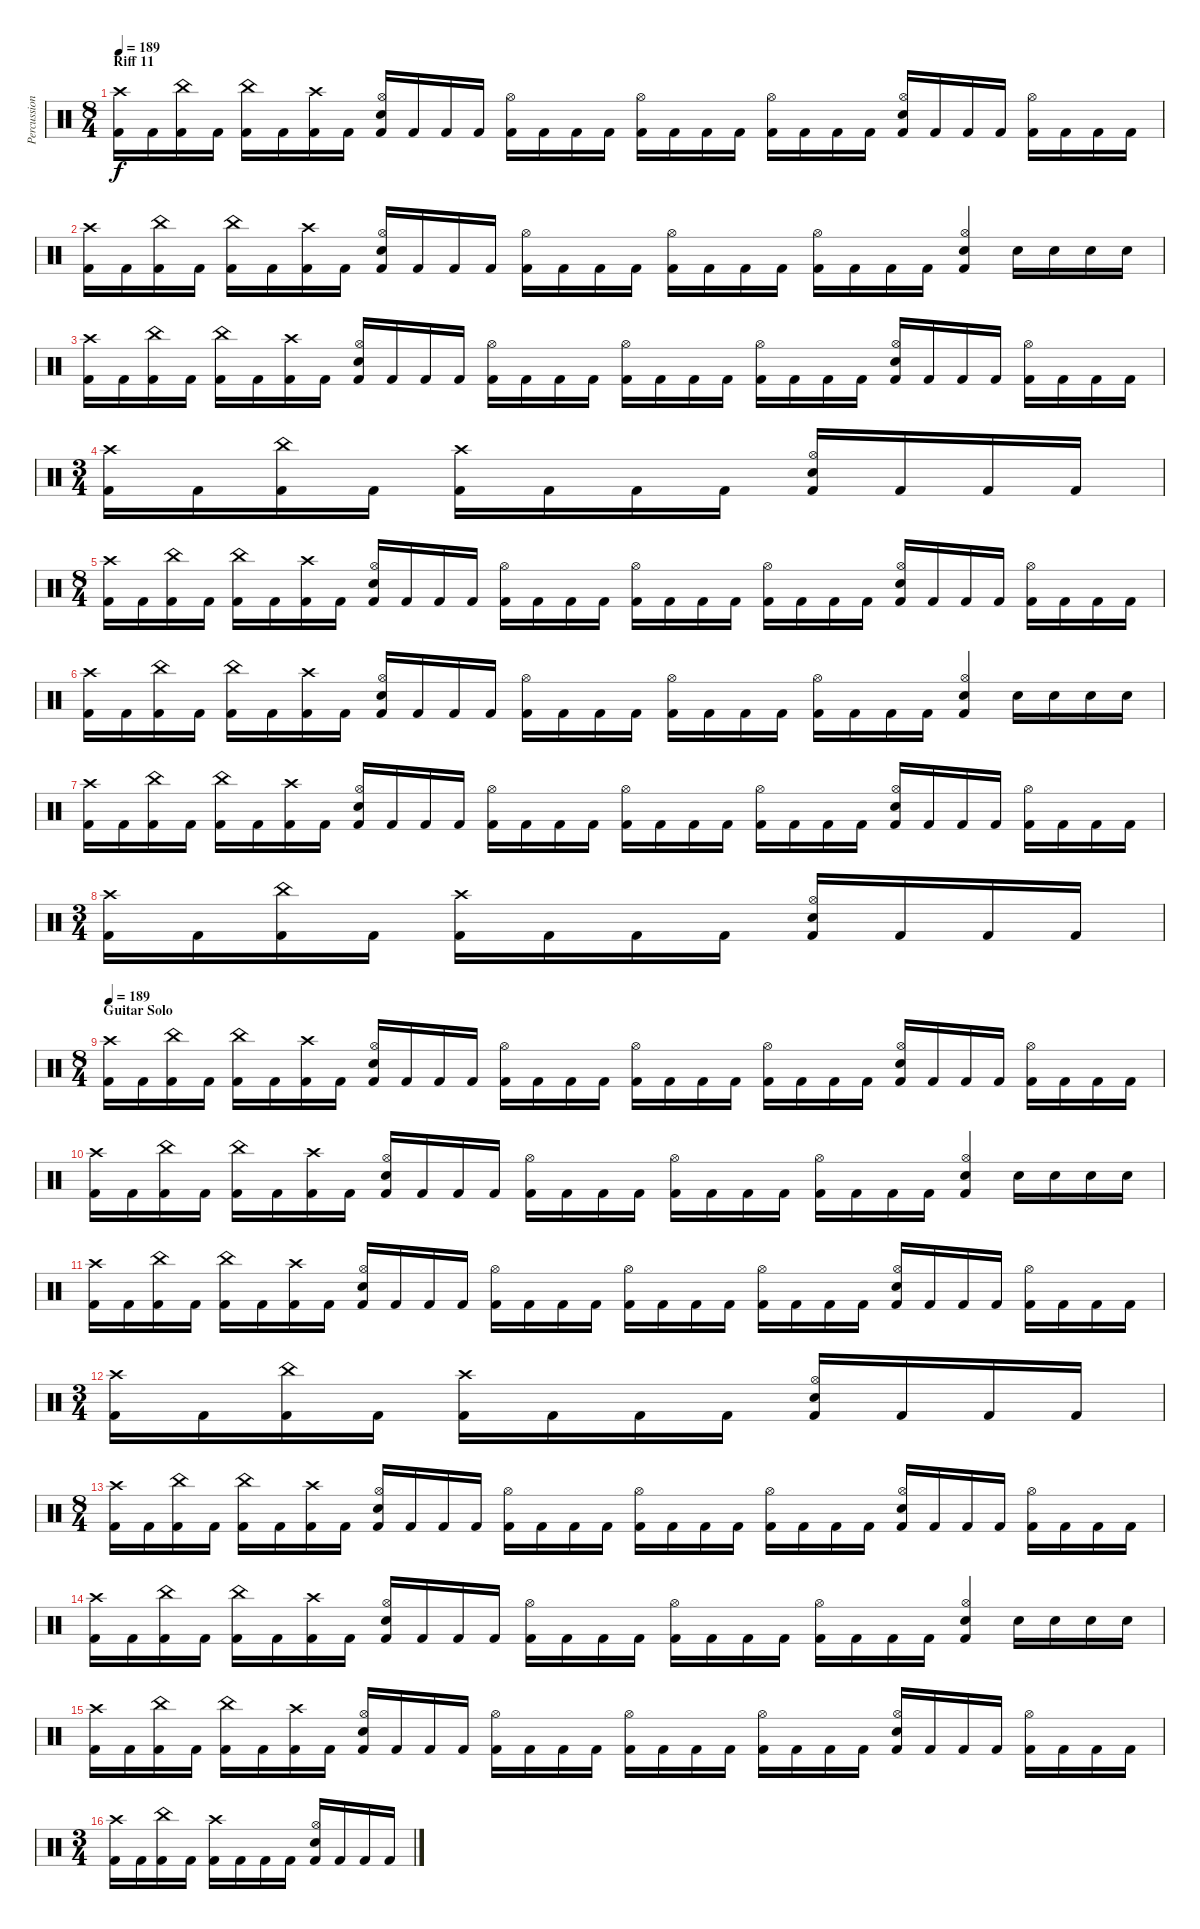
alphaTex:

\track ("Percussion" "Percussion") {instrument percussion}
\staff {score}
\articulation defaults
\ts (8 4)
\section ("" "Riff 11")
\tempo 189
\clef neutral
\ks c
("Crash high (hit)" "Kick (hit) 2").16{dy f} "Kick (hit) 2".16 ("China (hit)" "Kick (hit) 2").16 "Kick (hit) 2".16 ("China (hit)" "Kick (hit) 2").16 "Kick (hit) 2".16 ("Crash high (hit)" "Kick (hit) 2").16 "Kick (hit) 2".16 ("Hi-Hat (open)" "Electric Snare (hit)" "Kick (hit) 2").16 "Kick (hit) 2".16 "Kick (hit) 2".16 "Kick (hit) 2".16 ("Hi-Hat (open)" "Kick (hit) 2").16 "Kick (hit) 2".16 "Kick (hit) 2".16 "Kick (hit) 2".16 ("Hi-Hat (open)" "Kick (hit) 2").16 "Kick (hit) 2".16 "Kick (hit) 2".16 "Kick (hit) 2".16 ("Hi-Hat (open)" "Kick (hit) 2").16 "Kick (hit) 2".16 "Kick (hit) 2".16 "Kick (hit) 2".16 ("Hi-Hat (open)" "Electric Snare (hit)" "Kick (hit) 2").16 "Kick (hit) 2".16 "Kick (hit) 2".16 "Kick (hit) 2".16 ("Hi-Hat (open)" "Kick (hit) 2").16 "Kick (hit) 2".16 "Kick (hit) 2".16 "Kick (hit) 2".16 |
("Crash high (hit)" "Kick (hit) 2").16 "Kick (hit) 2".16 ("China (hit)" "Kick (hit) 2").16 "Kick (hit) 2".16 ("China (hit)" "Kick (hit) 2").16 "Kick (hit) 2".16 ("Crash high (hit)" "Kick (hit) 2").16 "Kick (hit) 2".16 ("Hi-Hat (open)" "Electric Snare (hit)" "Kick (hit) 2").16 "Kick (hit) 2".16 "Kick (hit) 2".16 "Kick (hit) 2".16 ("Hi-Hat (open)" "Kick (hit) 2").16 "Kick (hit) 2".16 "Kick (hit) 2".16 "Kick (hit) 2".16 ("Hi-Hat (open)" "Kick (hit) 2").16 "Kick (hit) 2".16 "Kick (hit) 2".16 "Kick (hit) 2".16 ("Hi-Hat (open)" "Kick (hit) 2").16 "Kick (hit) 2".16 "Kick (hit) 2".16 "Kick (hit) 2".16 ("Hi-Hat (open)" "Electric Snare (hit)" "Kick (hit) 2").4 "Electric Snare (hit)".16 "Electric Snare (hit)".16 "Electric Snare (hit)".16 "Electric Snare (hit)".16 |
("Crash high (hit)" "Kick (hit) 2").16 "Kick (hit) 2".16 ("China (hit)" "Kick (hit) 2").16 "Kick (hit) 2".16 ("China (hit)" "Kick (hit) 2").16 "Kick (hit) 2".16 ("Crash high (hit)" "Kick (hit) 2").16 "Kick (hit) 2".16 ("Hi-Hat (open)" "Electric Snare (hit)" "Kick (hit) 2").16 "Kick (hit) 2".16 "Kick (hit) 2".16 "Kick (hit) 2".16 ("Hi-Hat (open)" "Kick (hit) 2").16 "Kick (hit) 2".16 "Kick (hit) 2".16 "Kick (hit) 2".16 ("Hi-Hat (open)" "Kick (hit) 2").16 "Kick (hit) 2".16 "Kick (hit) 2".16 "Kick (hit) 2".16 ("Hi-Hat (open)" "Kick (hit) 2").16 "Kick (hit) 2".16 "Kick (hit) 2".16 "Kick (hit) 2".16 ("Hi-Hat (open)" "Electric Snare (hit)" "Kick (hit) 2").16 "Kick (hit) 2".16 "Kick (hit) 2".16 "Kick (hit) 2".16 ("Hi-Hat (open)" "Kick (hit) 2").16 "Kick (hit) 2".16 "Kick (hit) 2".16 "Kick (hit) 2".16 |
\ts (3 4)
("Crash high (hit)" "Kick (hit) 2").16 "Kick (hit) 2".16 ("China (hit)" "Kick (hit) 2").16 "Kick (hit) 2".16 ("Crash high (hit)" "Kick (hit) 2").16 "Kick (hit) 2".16 "Kick (hit) 2".16 "Kick (hit) 2".16 ("Hi-Hat (open)" "Electric Snare (hit)" "Kick (hit) 2").16 "Kick (hit) 2".16 "Kick (hit) 2".16 "Kick (hit) 2".16 |
\ts (8 4)
("Crash high (hit)" "Kick (hit) 2").16 "Kick (hit) 2".16 ("China (hit)" "Kick (hit) 2").16 "Kick (hit) 2".16 ("China (hit)" "Kick (hit) 2").16 "Kick (hit) 2".16 ("Crash high (hit)" "Kick (hit) 2").16 "Kick (hit) 2".16 ("Hi-Hat (open)" "Electric Snare (hit)" "Kick (hit) 2").16 "Kick (hit) 2".16 "Kick (hit) 2".16 "Kick (hit) 2".16 ("Hi-Hat (open)" "Kick (hit) 2").16 "Kick (hit) 2".16 "Kick (hit) 2".16 "Kick (hit) 2".16 ("Hi-Hat (open)" "Kick (hit) 2").16 "Kick (hit) 2".16 "Kick (hit) 2".16 "Kick (hit) 2".16 ("Hi-Hat (open)" "Kick (hit) 2").16 "Kick (hit) 2".16 "Kick (hit) 2".16 "Kick (hit) 2".16 ("Hi-Hat (open)" "Electric Snare (hit)" "Kick (hit) 2").16 "Kick (hit) 2".16 "Kick (hit) 2".16 "Kick (hit) 2".16 ("Hi-Hat (open)" "Kick (hit) 2").16 "Kick (hit) 2".16 "Kick (hit) 2".16 "Kick (hit) 2".16 |
("Crash high (hit)" "Kick (hit) 2").16 "Kick (hit) 2".16 ("China (hit)" "Kick (hit) 2").16 "Kick (hit) 2".16 ("China (hit)" "Kick (hit) 2").16 "Kick (hit) 2".16 ("Crash high (hit)" "Kick (hit) 2").16 "Kick (hit) 2".16 ("Hi-Hat (open)" "Electric Snare (hit)" "Kick (hit) 2").16 "Kick (hit) 2".16 "Kick (hit) 2".16 "Kick (hit) 2".16 ("Hi-Hat (open)" "Kick (hit) 2").16 "Kick (hit) 2".16 "Kick (hit) 2".16 "Kick (hit) 2".16 ("Hi-Hat (open)" "Kick (hit) 2").16 "Kick (hit) 2".16 "Kick (hit) 2".16 "Kick (hit) 2".16 ("Hi-Hat (open)" "Kick (hit) 2").16 "Kick (hit) 2".16 "Kick (hit) 2".16 "Kick (hit) 2".16 ("Hi-Hat (open)" "Electric Snare (hit)" "Kick (hit) 2").4 "Electric Snare (hit)".16 "Electric Snare (hit)".16 "Electric Snare (hit)".16 "Electric Snare (hit)".16 |
("Crash high (hit)" "Kick (hit) 2").16 "Kick (hit) 2".16 ("China (hit)" "Kick (hit) 2").16 "Kick (hit) 2".16 ("China (hit)" "Kick (hit) 2").16 "Kick (hit) 2".16 ("Crash high (hit)" "Kick (hit) 2").16 "Kick (hit) 2".16 ("Hi-Hat (open)" "Electric Snare (hit)" "Kick (hit) 2").16 "Kick (hit) 2".16 "Kick (hit) 2".16 "Kick (hit) 2".16 ("Hi-Hat (open)" "Kick (hit) 2").16 "Kick (hit) 2".16 "Kick (hit) 2".16 "Kick (hit) 2".16 ("Hi-Hat (open)" "Kick (hit) 2").16 "Kick (hit) 2".16 "Kick (hit) 2".16 "Kick (hit) 2".16 ("Hi-Hat (open)" "Kick (hit) 2").16 "Kick (hit) 2".16 "Kick (hit) 2".16 "Kick (hit) 2".16 ("Hi-Hat (open)" "Electric Snare (hit)" "Kick (hit) 2").16 "Kick (hit) 2".16 "Kick (hit) 2".16 "Kick (hit) 2".16 ("Hi-Hat (open)" "Kick (hit) 2").16 "Kick (hit) 2".16 "Kick (hit) 2".16 "Kick (hit) 2".16 |
\ts (3 4)
("Crash high (hit)" "Kick (hit) 2").16 "Kick (hit) 2".16 ("China (hit)" "Kick (hit) 2").16 "Kick (hit) 2".16 ("Crash high (hit)" "Kick (hit) 2").16 "Kick (hit) 2".16 "Kick (hit) 2".16 "Kick (hit) 2".16 ("Hi-Hat (open)" "Electric Snare (hit)" "Kick (hit) 2").16 "Kick (hit) 2".16 "Kick (hit) 2".16 "Kick (hit) 2".16 |
\ts (8 4)
\section ("" "Guitar Solo")
\tempo 189
("Crash high (hit)" "Kick (hit) 2").16 "Kick (hit) 2".16 ("China (hit)" "Kick (hit) 2").16 "Kick (hit) 2".16 ("China (hit)" "Kick (hit) 2").16 "Kick (hit) 2".16 ("Crash high (hit)" "Kick (hit) 2").16 "Kick (hit) 2".16 ("Hi-Hat (open)" "Electric Snare (hit)" "Kick (hit) 2").16 "Kick (hit) 2".16 "Kick (hit) 2".16 "Kick (hit) 2".16 ("Hi-Hat (open)" "Kick (hit) 2").16 "Kick (hit) 2".16 "Kick (hit) 2".16 "Kick (hit) 2".16 ("Hi-Hat (open)" "Kick (hit) 2").16 "Kick (hit) 2".16 "Kick (hit) 2".16 "Kick (hit) 2".16 ("Hi-Hat (open)" "Kick (hit) 2").16 "Kick (hit) 2".16 "Kick (hit) 2".16 "Kick (hit) 2".16 ("Hi-Hat (open)" "Electric Snare (hit)" "Kick (hit) 2").16 "Kick (hit) 2".16 "Kick (hit) 2".16 "Kick (hit) 2".16 ("Hi-Hat (open)" "Kick (hit) 2").16 "Kick (hit) 2".16 "Kick (hit) 2".16 "Kick (hit) 2".16 |
("Crash high (hit)" "Kick (hit) 2").16 "Kick (hit) 2".16 ("China (hit)" "Kick (hit) 2").16 "Kick (hit) 2".16 ("China (hit)" "Kick (hit) 2").16 "Kick (hit) 2".16 ("Crash high (hit)" "Kick (hit) 2").16 "Kick (hit) 2".16 ("Hi-Hat (open)" "Electric Snare (hit)" "Kick (hit) 2").16 "Kick (hit) 2".16 "Kick (hit) 2".16 "Kick (hit) 2".16 ("Hi-Hat (open)" "Kick (hit) 2").16 "Kick (hit) 2".16 "Kick (hit) 2".16 "Kick (hit) 2".16 ("Hi-Hat (open)" "Kick (hit) 2").16 "Kick (hit) 2".16 "Kick (hit) 2".16 "Kick (hit) 2".16 ("Hi-Hat (open)" "Kick (hit) 2").16 "Kick (hit) 2".16 "Kick (hit) 2".16 "Kick (hit) 2".16 ("Hi-Hat (open)" "Electric Snare (hit)" "Kick (hit) 2").4 "Electric Snare (hit)".16 "Electric Snare (hit)".16 "Electric Snare (hit)".16 "Electric Snare (hit)".16 |
("Crash high (hit)" "Kick (hit) 2").16 "Kick (hit) 2".16 ("China (hit)" "Kick (hit) 2").16 "Kick (hit) 2".16 ("China (hit)" "Kick (hit) 2").16 "Kick (hit) 2".16 ("Crash high (hit)" "Kick (hit) 2").16 "Kick (hit) 2".16 ("Hi-Hat (open)" "Electric Snare (hit)" "Kick (hit) 2").16 "Kick (hit) 2".16 "Kick (hit) 2".16 "Kick (hit) 2".16 ("Hi-Hat (open)" "Kick (hit) 2").16 "Kick (hit) 2".16 "Kick (hit) 2".16 "Kick (hit) 2".16 ("Hi-Hat (open)" "Kick (hit) 2").16 "Kick (hit) 2".16 "Kick (hit) 2".16 "Kick (hit) 2".16 ("Hi-Hat (open)" "Kick (hit) 2").16 "Kick (hit) 2".16 "Kick (hit) 2".16 "Kick (hit) 2".16 ("Hi-Hat (open)" "Electric Snare (hit)" "Kick (hit) 2").16 "Kick (hit) 2".16 "Kick (hit) 2".16 "Kick (hit) 2".16 ("Hi-Hat (open)" "Kick (hit) 2").16 "Kick (hit) 2".16 "Kick (hit) 2".16 "Kick (hit) 2".16 |
\ts (3 4)
("Crash high (hit)" "Kick (hit) 2").16 "Kick (hit) 2".16 ("China (hit)" "Kick (hit) 2").16 "Kick (hit) 2".16 ("Crash high (hit)" "Kick (hit) 2").16 "Kick (hit) 2".16 "Kick (hit) 2".16 "Kick (hit) 2".16 ("Hi-Hat (open)" "Electric Snare (hit)" "Kick (hit) 2").16 "Kick (hit) 2".16 "Kick (hit) 2".16 "Kick (hit) 2".16 |
\ts (8 4)
("Crash high (hit)" "Kick (hit) 2").16 "Kick (hit) 2".16 ("China (hit)" "Kick (hit) 2").16 "Kick (hit) 2".16 ("China (hit)" "Kick (hit) 2").16 "Kick (hit) 2".16 ("Crash high (hit)" "Kick (hit) 2").16 "Kick (hit) 2".16 ("Hi-Hat (open)" "Electric Snare (hit)" "Kick (hit) 2").16 "Kick (hit) 2".16 "Kick (hit) 2".16 "Kick (hit) 2".16 ("Hi-Hat (open)" "Kick (hit) 2").16 "Kick (hit) 2".16 "Kick (hit) 2".16 "Kick (hit) 2".16 ("Hi-Hat (open)" "Kick (hit) 2").16 "Kick (hit) 2".16 "Kick (hit) 2".16 "Kick (hit) 2".16 ("Hi-Hat (open)" "Kick (hit) 2").16 "Kick (hit) 2".16 "Kick (hit) 2".16 "Kick (hit) 2".16 ("Hi-Hat (open)" "Electric Snare (hit)" "Kick (hit) 2").16 "Kick (hit) 2".16 "Kick (hit) 2".16 "Kick (hit) 2".16 ("Hi-Hat (open)" "Kick (hit) 2").16 "Kick (hit) 2".16 "Kick (hit) 2".16 "Kick (hit) 2".16 |
("Crash high (hit)" "Kick (hit) 2").16 "Kick (hit) 2".16 ("China (hit)" "Kick (hit) 2").16 "Kick (hit) 2".16 ("China (hit)" "Kick (hit) 2").16 "Kick (hit) 2".16 ("Crash high (hit)" "Kick (hit) 2").16 "Kick (hit) 2".16 ("Hi-Hat (open)" "Electric Snare (hit)" "Kick (hit) 2").16 "Kick (hit) 2".16 "Kick (hit) 2".16 "Kick (hit) 2".16 ("Hi-Hat (open)" "Kick (hit) 2").16 "Kick (hit) 2".16 "Kick (hit) 2".16 "Kick (hit) 2".16 ("Hi-Hat (open)" "Kick (hit) 2").16 "Kick (hit) 2".16 "Kick (hit) 2".16 "Kick (hit) 2".16 ("Hi-Hat (open)" "Kick (hit) 2").16 "Kick (hit) 2".16 "Kick (hit) 2".16 "Kick (hit) 2".16 ("Hi-Hat (open)" "Electric Snare (hit)" "Kick (hit) 2").4 "Electric Snare (hit)".16 "Electric Snare (hit)".16 "Electric Snare (hit)".16 "Electric Snare (hit)".16 |
("Crash high (hit)" "Kick (hit) 2").16 "Kick (hit) 2".16 ("China (hit)" "Kick (hit) 2").16 "Kick (hit) 2".16 ("China (hit)" "Kick (hit) 2").16 "Kick (hit) 2".16 ("Crash high (hit)" "Kick (hit) 2").16 "Kick (hit) 2".16 ("Hi-Hat (open)" "Electric Snare (hit)" "Kick (hit) 2").16 "Kick (hit) 2".16 "Kick (hit) 2".16 "Kick (hit) 2".16 ("Hi-Hat (open)" "Kick (hit) 2").16 "Kick (hit) 2".16 "Kick (hit) 2".16 "Kick (hit) 2".16 ("Hi-Hat (open)" "Kick (hit) 2").16 "Kick (hit) 2".16 "Kick (hit) 2".16 "Kick (hit) 2".16 ("Hi-Hat (open)" "Kick (hit) 2").16 "Kick (hit) 2".16 "Kick (hit) 2".16 "Kick (hit) 2".16 ("Hi-Hat (open)" "Electric Snare (hit)" "Kick (hit) 2").16 "Kick (hit) 2".16 "Kick (hit) 2".16 "Kick (hit) 2".16 ("Hi-Hat (open)" "Kick (hit) 2").16 "Kick (hit) 2".16 "Kick (hit) 2".16 "Kick (hit) 2".16 |
\ts (3 4)
("Crash high (hit)" "Kick (hit) 2").16 "Kick (hit) 2".16 ("China (hit)" "Kick (hit) 2").16 "Kick (hit) 2".16 ("Crash high (hit)" "Kick (hit) 2").16 "Kick (hit) 2".16 "Kick (hit) 2".16 "Kick (hit) 2".16 ("Hi-Hat (open)" "Electric Snare (hit)" "Kick (hit) 2").16 "Kick (hit) 2".16 "Kick (hit) 2".16 "Kick (hit) 2".16
